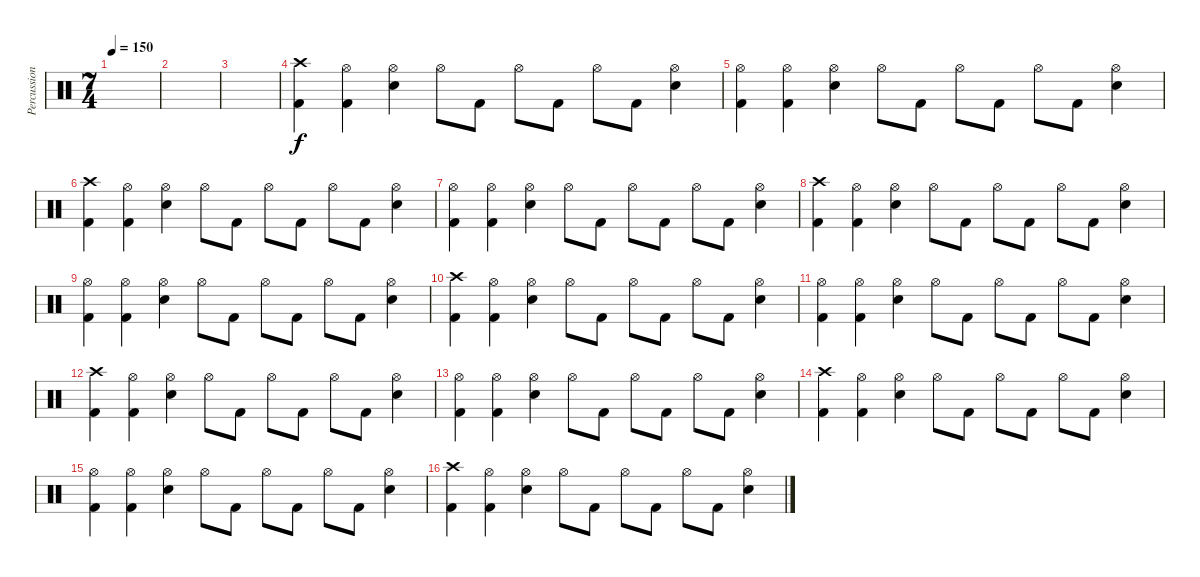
\track ("Percussion" "Percussion") {instrument percussion}
\staff {score}
\articulation defaults
\ts (7 4)
\tempo 150
\clef neutral
\ks c
|
|
|
("Crash high (hit)" "Kick (hit) 2").4{volume 13} ("Hi-Hat (open)" "Kick (hit) 2").4 ("Hi-Hat (open)" "Electric Snare (hit)").4 "Hi-Hat (open)".8 "Kick (hit) 2".8 "Hi-Hat (open)".8 "Kick (hit) 2".8 "Hi-Hat (open)".8 "Kick (hit) 2".8 ("Hi-Hat (open)" "Electric Snare (hit)").4 |
("Hi-Hat (open)" "Kick (hit) 2").4 ("Hi-Hat (open)" "Kick (hit) 2").4 ("Hi-Hat (open)" "Electric Snare (hit)").4 "Hi-Hat (open)".8 "Kick (hit) 2".8 "Hi-Hat (open)".8 "Kick (hit) 2".8 "Hi-Hat (open)".8 "Kick (hit) 2".8 ("Hi-Hat (open)" "Electric Snare (hit)").4 |
("Crash high (hit)" "Kick (hit) 2").4{volume 13} ("Hi-Hat (open)" "Kick (hit) 2").4 ("Hi-Hat (open)" "Electric Snare (hit)").4 "Hi-Hat (open)".8 "Kick (hit) 2".8 "Hi-Hat (open)".8 "Kick (hit) 2".8 "Hi-Hat (open)".8 "Kick (hit) 2".8 ("Hi-Hat (open)" "Electric Snare (hit)").4 |
("Hi-Hat (open)" "Kick (hit) 2").4 ("Hi-Hat (open)" "Kick (hit) 2").4 ("Hi-Hat (open)" "Electric Snare (hit)").4 "Hi-Hat (open)".8 "Kick (hit) 2".8 "Hi-Hat (open)".8 "Kick (hit) 2".8 "Hi-Hat (open)".8 "Kick (hit) 2".8 ("Hi-Hat (open)" "Electric Snare (hit)").4 |
("Crash high (hit)" "Kick (hit) 2").4{volume 13} ("Hi-Hat (open)" "Kick (hit) 2").4 ("Hi-Hat (open)" "Electric Snare (hit)").4 "Hi-Hat (open)".8 "Kick (hit) 2".8 "Hi-Hat (open)".8 "Kick (hit) 2".8 "Hi-Hat (open)".8 "Kick (hit) 2".8 ("Hi-Hat (open)" "Electric Snare (hit)").4 |
("Hi-Hat (open)" "Kick (hit) 2").4 ("Hi-Hat (open)" "Kick (hit) 2").4 ("Hi-Hat (open)" "Electric Snare (hit)").4 "Hi-Hat (open)".8 "Kick (hit) 2".8 "Hi-Hat (open)".8 "Kick (hit) 2".8 "Hi-Hat (open)".8 "Kick (hit) 2".8 ("Hi-Hat (open)" "Electric Snare (hit)").4 |
("Crash high (hit)" "Kick (hit) 2").4{volume 13} ("Hi-Hat (open)" "Kick (hit) 2").4 ("Hi-Hat (open)" "Electric Snare (hit)").4 "Hi-Hat (open)".8 "Kick (hit) 2".8 "Hi-Hat (open)".8 "Kick (hit) 2".8 "Hi-Hat (open)".8 "Kick (hit) 2".8 ("Hi-Hat (open)" "Electric Snare (hit)").4 |
("Hi-Hat (open)" "Kick (hit) 2").4 ("Hi-Hat (open)" "Kick (hit) 2").4 ("Hi-Hat (open)" "Electric Snare (hit)").4 "Hi-Hat (open)".8 "Kick (hit) 2".8 "Hi-Hat (open)".8 "Kick (hit) 2".8 "Hi-Hat (open)".8 "Kick (hit) 2".8 ("Hi-Hat (open)" "Electric Snare (hit)").4 |
("Crash high (hit)" "Kick (hit) 2").4{volume 13} ("Hi-Hat (open)" "Kick (hit) 2").4 ("Hi-Hat (open)" "Electric Snare (hit)").4 "Hi-Hat (open)".8 "Kick (hit) 2".8 "Hi-Hat (open)".8 "Kick (hit) 2".8 "Hi-Hat (open)".8 "Kick (hit) 2".8 ("Hi-Hat (open)" "Electric Snare (hit)").4 |
("Hi-Hat (open)" "Kick (hit) 2").4 ("Hi-Hat (open)" "Kick (hit) 2").4 ("Hi-Hat (open)" "Electric Snare (hit)").4 "Hi-Hat (open)".8 "Kick (hit) 2".8 "Hi-Hat (open)".8 "Kick (hit) 2".8 "Hi-Hat (open)".8 "Kick (hit) 2".8 ("Hi-Hat (open)" "Electric Snare (hit)").4 |
("Crash high (hit)" "Kick (hit) 2").4{volume 13} ("Hi-Hat (open)" "Kick (hit) 2").4 ("Hi-Hat (open)" "Electric Snare (hit)").4 "Hi-Hat (open)".8 "Kick (hit) 2".8 "Hi-Hat (open)".8 "Kick (hit) 2".8 "Hi-Hat (open)".8 "Kick (hit) 2".8 ("Hi-Hat (open)" "Electric Snare (hit)").4 |
("Hi-Hat (open)" "Kick (hit) 2").4 ("Hi-Hat (open)" "Kick (hit) 2").4 ("Hi-Hat (open)" "Electric Snare (hit)").4 "Hi-Hat (open)".8 "Kick (hit) 2".8 "Hi-Hat (open)".8 "Kick (hit) 2".8 "Hi-Hat (open)".8 "Kick (hit) 2".8 ("Hi-Hat (open)" "Electric Snare (hit)").4 |
("Crash high (hit)" "Kick (hit) 2").4{volume 13} ("Hi-Hat (open)" "Kick (hit) 2").4 ("Hi-Hat (open)" "Electric Snare (hit)").4 "Hi-Hat (open)".8 "Kick (hit) 2".8 "Hi-Hat (open)".8 "Kick (hit) 2".8 "Hi-Hat (open)".8 "Kick (hit) 2".8 ("Hi-Hat (open)" "Electric Snare (hit)").4
